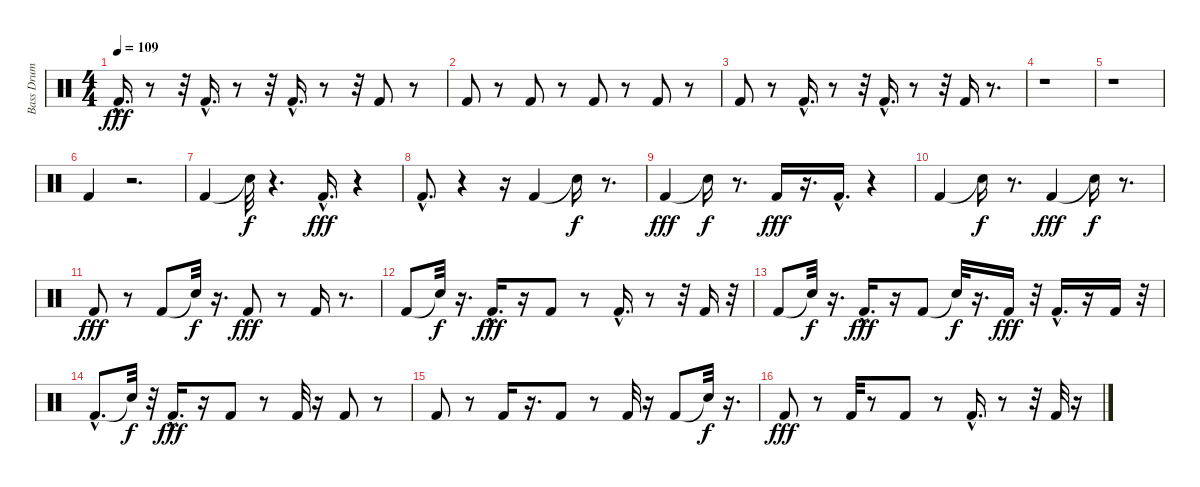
\track ("Bass Drum       " "Bass Drum ") {instrument percussion}
\staff {score}
\articulation defaults
\ts (4 4)
\tempo 109
\clef neutral
\ks c "Kick (hit) 2"{hac}.16{d dy fff}
r.8 r.32 "Kick (hit) 2"{hac}.16{d} r.8 r.32 "Kick (hit) 2"{hac}.16{d} r.8 r.32 "Kick (hit) 2".8 r.8 |
"Kick (hit) 2".8 r.8 "Kick (hit) 2".8 r.8 "Kick (hit) 2".8 r.8 "Kick (hit) 2".8 r.8 |
"Kick (hit) 2".8 r.8 "Kick (hit) 2"{hac}.16{d} r.8 r.32 "Kick (hit) 2"{hac}.16{d} r.8 r.32 "Kick (hit) 2".16 r.8{d} |
r.1 |
r.1 |
"Kick (hit) 2".4 r.2{d} |
"Kick (hit) 2".4 "Snare (hit)"{t}.32{dy f} r.4{d} "Kick (hit) 2"{hac}.16{d dy fff} r.4 |
"Kick (hit) 2"{hac}.8{d} r.4 r.16 "Kick (hit) 2".4 "Snare (hit)"{t}.16{dy f} r.8{d} |
"Kick (hit) 2".4{dy fff} "Snare (hit)"{t}.16{dy f} r.8{d} "Kick (hit) 2".16{dy fff} r.16{d} "Kick (hit) 2"{hac}.16{d} r.4 |
"Kick (hit) 2".4 "Snare (hit)"{t}.16{dy f} r.8{d} "Kick (hit) 2".4{dy fff} "Snare (hit)"{t}.16{dy f} r.8{d} |
"Kick (hit) 2".8{dy fff} r.8 "Kick (hit) 2".8 "Snare (hit)"{t}.32{dy f} r.16{d} "Kick (hit) 2".8{dy fff} r.8 "Kick (hit) 2".16 r.8{d} |
"Kick (hit) 2".8 "Snare (hit)"{t}.32{dy f} r.16{d} "Kick (hit) 2"{hac}.16{d dy fff} r.16 "Kick (hit) 2".8 r.8 "Kick (hit) 2"{hac}.16{d} r.8 r.32 "Kick (hit) 2".16 r.32 |
"Kick (hit) 2".8 "Snare (hit)"{t}.32{dy f} r.16{d} "Kick (hit) 2"{hac}.16{d dy fff} r.16 "Kick (hit) 2".8 "Snare (hit)"{t}.32{dy f} r.16{d} "Kick (hit) 2".16{dy fff} r.32 "Kick (hit) 2"{hac}.16{d} r.16 "Kick (hit) 2".16 r.32 |
"Kick (hit) 2"{hac}.8{d} "Snare (hit)"{t}.32{dy f} r.32 "Kick (hit) 2"{hac}.16{d dy fff} r.16 "Kick (hit) 2".8 r.8 "Kick (hit) 2".32 r.16 "Kick (hit) 2".8 r.8 |
"Kick (hit) 2".8 r.8 "Kick (hit) 2".16 r.16{d} "Kick (hit) 2".8 r.8 "Kick (hit) 2".32 r.16 "Kick (hit) 2".8 "Snare (hit)"{t}.32{dy f} r.16{d} |
"Kick (hit) 2".8{dy fff} r.8 "Kick (hit) 2".32 r.8 "Kick (hit) 2".8 r.8 "Kick (hit) 2"{hac}.16{d} r.8 r.32 "Kick (hit) 2".32 r.16
